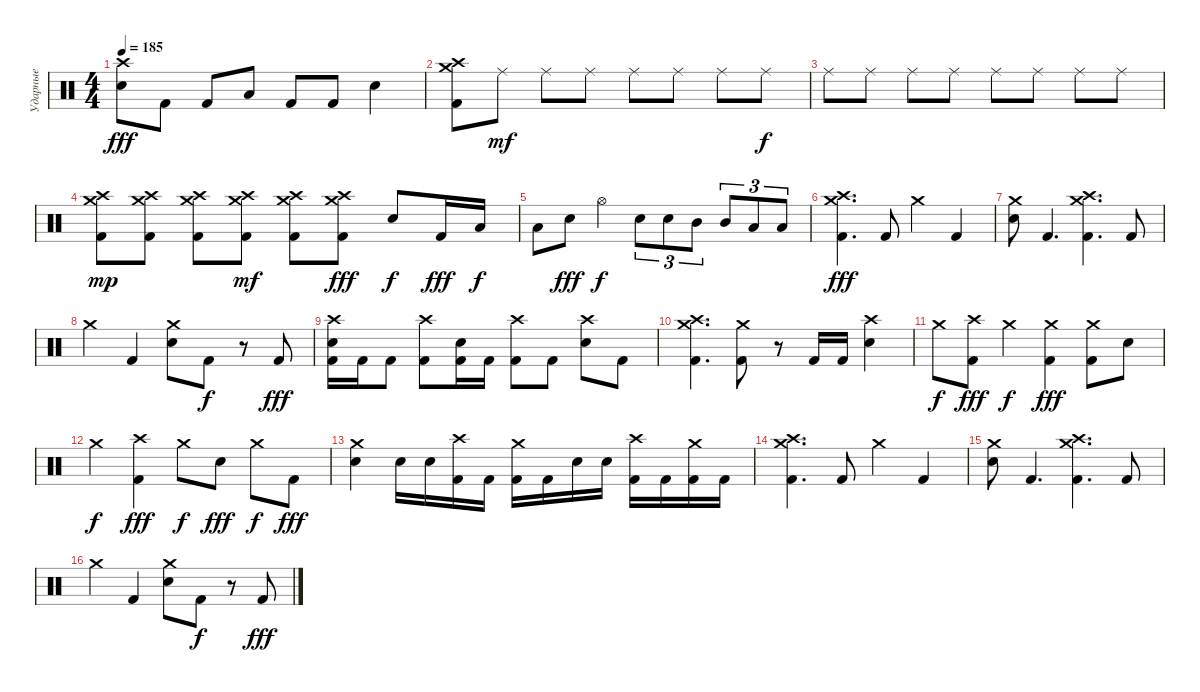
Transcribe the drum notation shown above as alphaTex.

\track ("Ударные" "Ударные") {instrument percussion}
\staff {score}
\articulation defaults
\ts (4 4)
\tempo 185
\clef neutral
\ks c
("Crash high (hit)" "Electric Snare (hit)").8{dy fff} "Kick (hit) 2".8 "Kick (hit) 2".8 "Low Floor Tom (hit)".8 "Kick (hit) 2".8 "Kick (hit) 2".8 "Electric Snare (hit)".4 |
("Crash high (hit)" "Crash medium (hit)" "Kick (hit) 2").8 "Ride (middle)".8{dy mf} "Ride (middle)".8 "Ride (middle)".8 "Ride (middle)".8 "Ride (middle)".8 "Ride (middle)".8 "Ride (middle)".8{dy f} |
"Ride (middle)".8 "Ride (middle)".8 "Ride (middle)".8 "Ride (middle)".8 "Ride (middle)".8 "Ride (middle)".8 "Ride (middle)".8 "Ride (middle)".8 |
("Crash high (hit)" "Crash medium (hit)" "Kick (hit) 2").8{dy mp} ("Crash high (hit)" "Crash medium (hit)" "Kick (hit) 2").8 ("Crash high (hit)" "Crash medium (hit)" "Kick (hit) 2").8 ("Crash high (hit)" "Crash medium (hit)" "Kick (hit) 2").8{dy mf} ("Crash high (hit)" "Crash medium (hit)" "Kick (hit) 2").8 ("Crash high (hit)" "Crash medium (hit)" "Kick (hit) 2").8{dy fff} "Electric Snare (hit)".8{dy f} "Kick (hit) 2".16{dy fff} "Low Floor Tom (hit)".16{dy f} |
"Low Floor Tom (hit)".8 "Electric Snare (hit)".8{dy fff} "Hi-Hat (open)".4{dy f} "Electric Snare (hit)".8{tu (3 2)} "Electric Snare (hit)".8{tu (3 2)} "Mid Tom (hit)".8{tu (3 2)} "Mid Tom (hit)".8{tu (3 2)} "Low Floor Tom (hit)".8{tu (3 2)} "Low Floor Tom (hit)".8{tu (3 2)} |
("Crash high (hit)" "Crash medium (hit)" "Kick (hit) 2").4{d dy fff} "Kick (hit) 2".8 "Crash medium (hit)".4 "Kick (hit) 2".4 |
("Crash medium (hit)" "Electric Snare (hit)").8 "Kick (hit) 2".4{d} ("Crash high (hit)" "Crash medium (hit)" "Kick (hit) 2").4{d} "Kick (hit) 2".8 |
"Crash medium (hit)".4 "Kick (hit) 2".4 ("Crash medium (hit)" "Electric Snare (hit)").8 "Kick (hit) 2".8{dy f} r.8 "Kick (hit) 2".8{dy fff} |
("Crash high (hit)" "Electric Snare (hit)" "Kick (hit) 2").16 "Kick (hit) 2".16 "Kick (hit) 2".8 ("Crash high (hit)" "Kick (hit) 2").8 ("Electric Snare (hit)" "Kick (hit) 2").16 "Kick (hit) 2".16 ("Crash high (hit)" "Kick (hit) 2").8 "Kick (hit) 2".8 ("Crash high (hit)" "Electric Snare (hit)").8 "Kick (hit) 2".8 |
("Crash high (hit)" "Crash medium (hit)" "Kick (hit) 2").4{d} ("Crash medium (hit)" "Kick (hit) 2").8 r.8 "Kick (hit) 2".16 "Kick (hit) 2".16 ("Crash high (hit)" "Electric Snare (hit)").4 |
"Crash medium (hit)".8{dy f} ("Crash high (hit)" "Kick (hit) 2").8{dy fff} "Crash medium (hit)".4{dy f} ("Crash medium (hit)" "Kick (hit) 2").4{dy fff} ("Crash medium (hit)" "Kick (hit) 2").8 "Electric Snare (hit)".8 |
"Crash medium (hit)".4{dy f} ("Crash high (hit)" "Kick (hit) 2").4{dy fff} "Crash medium (hit)".8{dy f} "Electric Snare (hit)".8{dy fff} "Crash medium (hit)".8{dy f} "Kick (hit) 2".8{dy fff} |
("Crash medium (hit)" "Electric Snare (hit)").4 "Electric Snare (hit)".16 "Electric Snare (hit)".16 ("Crash high (hit)" "Kick (hit) 2").16 "Kick (hit) 2".16 ("Crash medium (hit)" "Kick (hit) 2").16 "Kick (hit) 2".16 "Electric Snare (hit)".16 "Electric Snare (hit)".16 ("Crash high (hit)" "Kick (hit) 2").16 "Kick (hit) 2".16 ("Crash medium (hit)" "Kick (hit) 2").16 "Kick (hit) 2".16 |
("Crash high (hit)" "Crash medium (hit)" "Kick (hit) 2").4{d} "Kick (hit) 2".8 "Crash medium (hit)".4 "Kick (hit) 2".4 |
("Crash medium (hit)" "Electric Snare (hit)").8 "Kick (hit) 2".4{d} ("Crash high (hit)" "Crash medium (hit)" "Kick (hit) 2").4{d} "Kick (hit) 2".8 |
"Crash medium (hit)".4 "Kick (hit) 2".4 ("Crash medium (hit)" "Electric Snare (hit)").8 "Kick (hit) 2".8{dy f} r.8 "Kick (hit) 2".8{dy fff}
